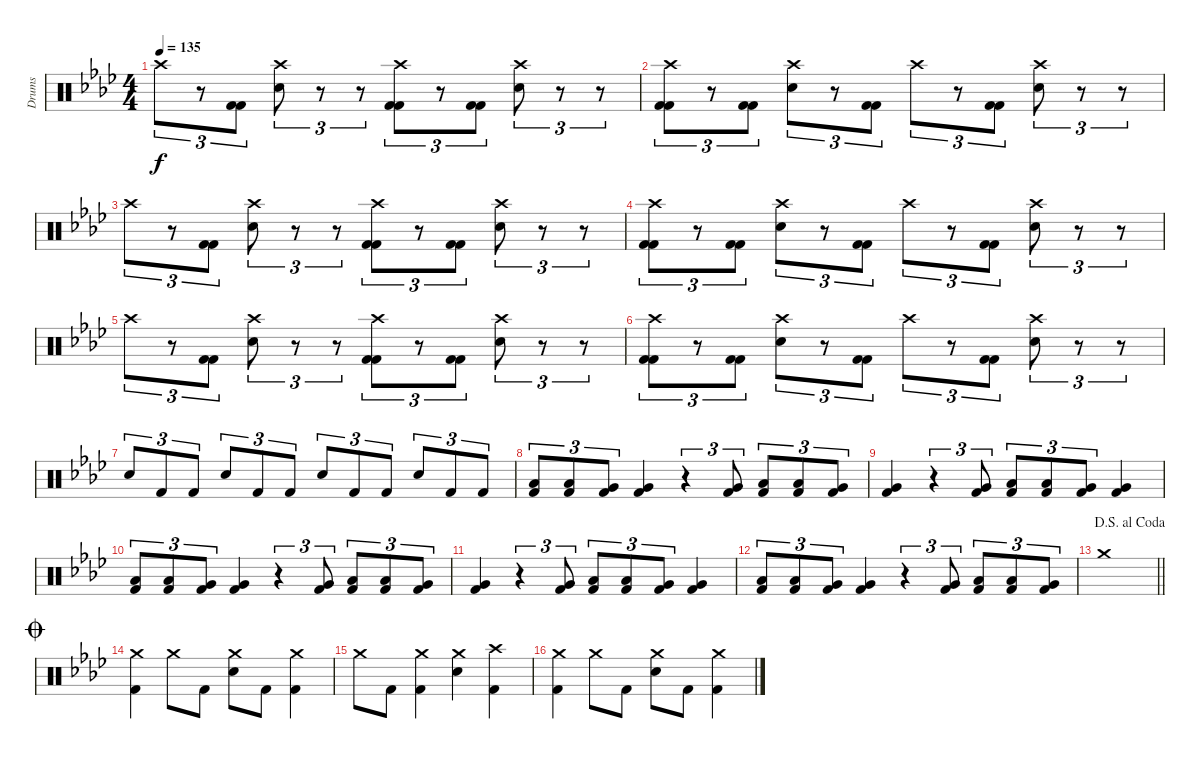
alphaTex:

\track ("Drums" "Drums") {instrument percussion}
\staff {score}
\articulation defaults
\ts (4 4)
\tempo 135
\clef neutral
\ks ab "Crash high (hit)".8{tu (3 2) dy f}
r.8{tu (3 2)} ("Kick (hit) 2" "Kick (hit) 2").8{tu (3 2)} ("Crash high (hit)" "Electric Snare (hit)").8{tu (3 2)} r.8{tu (3 2)} r.8{tu (3 2)} ("Crash high (hit)" "Kick (hit) 2" "Kick (hit) 2").8{tu (3 2)} r.8{tu (3 2)} ("Kick (hit) 2" "Kick (hit) 2").8{tu (3 2)} ("Crash high (hit)" "Electric Snare (hit)").8{tu (3 2)} r.8{tu (3 2)} r.8{tu (3 2)} |
("Crash high (hit)" "Kick (hit) 2" "Kick (hit) 2").8{tu (3 2)} r.8{tu (3 2)} ("Kick (hit) 2" "Kick (hit) 2").8{tu (3 2)} ("Crash high (hit)" "Electric Snare (hit)").8{tu (3 2)} r.8{tu (3 2)} ("Kick (hit) 2" "Kick (hit) 2").8{tu (3 2)} "Crash high (hit)".8{tu (3 2)} r.8{tu (3 2)} ("Kick (hit) 2" "Kick (hit) 2").8{tu (3 2)} ("Crash high (hit)" "Electric Snare (hit)").8{tu (3 2)} r.8{tu (3 2)} r.8{tu (3 2)} |
"Crash high (hit)".8{tu (3 2)} r.8{tu (3 2)} ("Kick (hit) 2" "Kick (hit) 2").8{tu (3 2)} ("Crash high (hit)" "Electric Snare (hit)").8{tu (3 2)} r.8{tu (3 2)} r.8{tu (3 2)} ("Crash high (hit)" "Kick (hit) 2" "Kick (hit) 2").8{tu (3 2)} r.8{tu (3 2)} ("Kick (hit) 2" "Kick (hit) 2").8{tu (3 2)} ("Crash high (hit)" "Electric Snare (hit)").8{tu (3 2)} r.8{tu (3 2)} r.8{tu (3 2)} |
("Crash high (hit)" "Kick (hit) 2" "Kick (hit) 2").8{tu (3 2)} r.8{tu (3 2)} ("Kick (hit) 2" "Kick (hit) 2").8{tu (3 2)} ("Crash high (hit)" "Electric Snare (hit)").8{tu (3 2)} r.8{tu (3 2)} ("Kick (hit) 2" "Kick (hit) 2").8{tu (3 2)} "Crash high (hit)".8{tu (3 2)} r.8{tu (3 2)} ("Kick (hit) 2" "Kick (hit) 2").8{tu (3 2)} ("Crash high (hit)" "Electric Snare (hit)").8{tu (3 2)} r.8{tu (3 2)} r.8{tu (3 2)} |
"Crash high (hit)".8{tu (3 2)} r.8{tu (3 2)} ("Kick (hit) 2" "Kick (hit) 2").8{tu (3 2)} ("Crash high (hit)" "Electric Snare (hit)").8{tu (3 2)} r.8{tu (3 2)} r.8{tu (3 2)} ("Crash high (hit)" "Kick (hit) 2" "Kick (hit) 2").8{tu (3 2)} r.8{tu (3 2)} ("Kick (hit) 2" "Kick (hit) 2").8{tu (3 2)} ("Crash high (hit)" "Electric Snare (hit)").8{tu (3 2)} r.8{tu (3 2)} r.8{tu (3 2)} |
("Crash high (hit)" "Kick (hit) 2" "Kick (hit) 2").8{tu (3 2)} r.8{tu (3 2)} ("Kick (hit) 2" "Kick (hit) 2").8{tu (3 2)} ("Crash high (hit)" "Electric Snare (hit)").8{tu (3 2)} r.8{tu (3 2)} ("Kick (hit) 2" "Kick (hit) 2").8{tu (3 2)} "Crash high (hit)".8{tu (3 2)} r.8{tu (3 2)} ("Kick (hit) 2" "Kick (hit) 2").8{tu (3 2)} ("Crash high (hit)" "Electric Snare (hit)").8{tu (3 2)} r.8{tu (3 2)} r.8{tu (3 2)} |
"Electric Snare (hit)".8{tu (3 2)} "Kick (hit) 2".8{tu (3 2)} "Kick (hit) 2".8{tu (3 2)} "Electric Snare (hit)".8{tu (3 2)} "Kick (hit) 2".8{tu (3 2)} "Kick (hit) 2".8{tu (3 2)} "Electric Snare (hit)".8{tu (3 2)} "Kick (hit) 2".8{tu (3 2)} "Kick (hit) 2".8{tu (3 2)} "Electric Snare (hit)".8{tu (3 2)} "Kick (hit) 2".8{tu (3 2)} "Kick (hit) 2".8{tu (3 2)} |
("Low Tom (hit)" "Kick (hit) 2").8{tu (3 2)} ("Low Tom (hit)" "Kick (hit) 2").8{tu (3 2)} ("Very Low Tom (hit)" "Kick (hit) 2").8{tu (3 2)} ("Very Low Tom (hit)" "Kick (hit) 2").4 r.4{tu (3 2)} ("Very Low Tom (hit)" "Kick (hit) 2").8{tu (3 2)} ("Low Tom (hit)" "Kick (hit) 2").8{tu (3 2)} ("Low Tom (hit)" "Kick (hit) 2").8{tu (3 2)} ("Very Low Tom (hit)" "Kick (hit) 2").8{tu (3 2)} |
("Very Low Tom (hit)" "Kick (hit) 2").4 r.4{tu (3 2)} ("Very Low Tom (hit)" "Kick (hit) 2").8{tu (3 2)} ("Low Tom (hit)" "Kick (hit) 2").8{tu (3 2)} ("Low Tom (hit)" "Kick (hit) 2").8{tu (3 2)} ("Very Low Tom (hit)" "Kick (hit) 2").8{tu (3 2)} ("Very Low Tom (hit)" "Kick (hit) 2").4 |
("Low Tom (hit)" "Kick (hit) 2").8{tu (3 2)} ("Low Tom (hit)" "Kick (hit) 2").8{tu (3 2)} ("Very Low Tom (hit)" "Kick (hit) 2").8{tu (3 2)} ("Very Low Tom (hit)" "Kick (hit) 2").4 r.4{tu (3 2)} ("Very Low Tom (hit)" "Kick (hit) 2").8{tu (3 2)} ("Low Tom (hit)" "Kick (hit) 2").8{tu (3 2)} ("Low Tom (hit)" "Kick (hit) 2").8{tu (3 2)} ("Very Low Tom (hit)" "Kick (hit) 2").8{tu (3 2)} |
("Very Low Tom (hit)" "Kick (hit) 2").4 r.4{tu (3 2)} ("Very Low Tom (hit)" "Kick (hit) 2").8{tu (3 2)} ("Low Tom (hit)" "Kick (hit) 2").8{tu (3 2)} ("Low Tom (hit)" "Kick (hit) 2").8{tu (3 2)} ("Very Low Tom (hit)" "Kick (hit) 2").8{tu (3 2)} ("Very Low Tom (hit)" "Kick (hit) 2").4 |
("Low Tom (hit)" "Kick (hit) 2").8{tu (3 2)} ("Low Tom (hit)" "Kick (hit) 2").8{tu (3 2)} ("Very Low Tom (hit)" "Kick (hit) 2").8{tu (3 2)} ("Very Low Tom (hit)" "Kick (hit) 2").4 r.4{tu (3 2)} ("Very Low Tom (hit)" "Kick (hit) 2").8{tu (3 2)} ("Low Tom (hit)" "Kick (hit) 2").8{tu (3 2)} ("Low Tom (hit)" "Kick (hit) 2").8{tu (3 2)} ("Very Low Tom (hit)" "Kick (hit) 2").8{tu (3 2)} |
\jump dalsegnoalcoda
\barLineRight lightlight "Crash medium (hit)".1
|
\jump coda
("Crash medium (hit)" "Kick (hit) 2").4 "Crash medium (hit)".8 "Kick (hit) 2".8 ("Crash medium (hit)" "Electric Snare (hit)").8 "Kick (hit) 2".8 ("Crash medium (hit)" "Kick (hit) 2").4 |
"Crash medium (hit)".8 "Kick (hit) 2".8 ("Crash medium (hit)" "Kick (hit) 2").4 ("Crash medium (hit)" "Electric Snare (hit)").4 ("Crash high (hit)" "Kick (hit) 2").4 |
("Crash medium (hit)" "Kick (hit) 2").4 "Crash medium (hit)".8 "Kick (hit) 2".8 ("Crash medium (hit)" "Electric Snare (hit)").8 "Kick (hit) 2".8 ("Crash medium (hit)" "Kick (hit) 2").4
